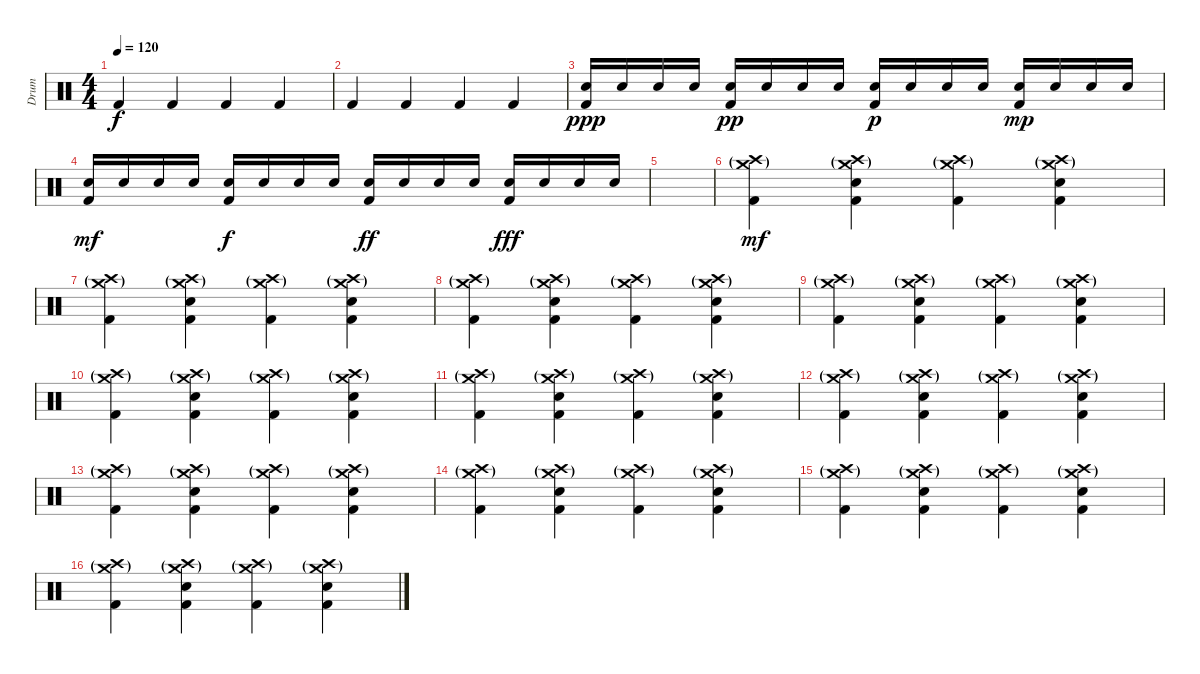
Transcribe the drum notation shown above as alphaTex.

\track ("Drum" "Drum") {instrument percussion}
\staff {score}
\articulation defaults
\ts (4 4)
\tempo 120
\clef neutral
\ks c "Kick (hit) 2".4{dy f} "Kick (hit) 2".4 "Kick (hit) 2".4 "Kick (hit) 2".4
|
"Kick (hit) 2".4 "Kick (hit) 2".4 "Kick (hit) 2".4 "Kick (hit) 2".4 |
("Snare (hit) 2" "Kick (hit) 2").16{dy ppp} "Snare (hit) 2".16 "Snare (hit) 2".16 "Snare (hit) 2".16 ("Snare (hit) 2" "Kick (hit) 2").16{dy pp} "Snare (hit) 2".16 "Snare (hit) 2".16 "Snare (hit) 2".16 ("Snare (hit) 2" "Kick (hit) 2").16{dy p} "Snare (hit) 2".16 "Snare (hit) 2".16 "Snare (hit) 2".16 ("Snare (hit) 2" "Kick (hit) 2").16{dy mp} "Snare (hit) 2".16 "Snare (hit) 2".16 "Snare (hit) 2".16 |
("Snare (hit) 2" "Kick (hit) 2").16{dy mf} "Snare (hit) 2".16 "Snare (hit) 2".16 "Snare (hit) 2".16 ("Snare (hit) 2" "Kick (hit) 2").16{dy f} "Snare (hit) 2".16 "Snare (hit) 2".16 "Snare (hit) 2".16 ("Snare (hit) 2" "Kick (hit) 2").16{dy ff} "Snare (hit) 2".16 "Snare (hit) 2".16 "Snare (hit) 2".16 ("Snare (hit) 2" "Kick (hit) 2").16{dy fff} "Snare (hit) 2".16 "Snare (hit) 2".16 "Snare (hit) 2".16 |
|
("Crash medium (hit)"{g} "Crash high (hit)"{g} "Kick (hit) 2").4{dy mf} ("Crash medium (hit)"{g} "Crash high (hit)"{g} "Snare (hit) 2" "Kick (hit) 2").4 ("Crash medium (hit)"{g} "Crash high (hit)"{g} "Kick (hit) 2").4 ("Crash medium (hit)"{g} "Crash high (hit)"{g} "Snare (hit) 2" "Kick (hit) 2").4 |
("Crash medium (hit)"{g} "Crash high (hit)"{g} "Kick (hit) 2").4 ("Crash medium (hit)"{g} "Crash high (hit)"{g} "Snare (hit) 2" "Kick (hit) 2").4 ("Crash medium (hit)"{g} "Crash high (hit)"{g} "Kick (hit) 2").4 ("Crash medium (hit)"{g} "Crash high (hit)"{g} "Snare (hit) 2" "Kick (hit) 2").4 |
("Crash medium (hit)"{g} "Crash high (hit)"{g} "Kick (hit) 2").4 ("Crash medium (hit)"{g} "Crash high (hit)"{g} "Snare (hit) 2" "Kick (hit) 2").4 ("Crash medium (hit)"{g} "Crash high (hit)"{g} "Kick (hit) 2").4 ("Crash medium (hit)"{g} "Crash high (hit)"{g} "Snare (hit) 2" "Kick (hit) 2").4 |
("Crash medium (hit)"{g} "Crash high (hit)"{g} "Kick (hit) 2").4 ("Crash medium (hit)"{g} "Crash high (hit)"{g} "Snare (hit) 2" "Kick (hit) 2").4 ("Crash medium (hit)"{g} "Crash high (hit)"{g} "Kick (hit) 2").4 ("Crash medium (hit)"{g} "Crash high (hit)"{g} "Snare (hit) 2" "Kick (hit) 2").4 |
("Crash medium (hit)"{g} "Crash high (hit)"{g} "Kick (hit) 2").4 ("Crash medium (hit)"{g} "Crash high (hit)"{g} "Snare (hit) 2" "Kick (hit) 2").4 ("Crash medium (hit)"{g} "Crash high (hit)"{g} "Kick (hit) 2").4 ("Crash medium (hit)"{g} "Crash high (hit)"{g} "Snare (hit) 2" "Kick (hit) 2").4 |
("Crash medium (hit)"{g} "Crash high (hit)"{g} "Kick (hit) 2").4 ("Crash medium (hit)"{g} "Crash high (hit)"{g} "Snare (hit) 2" "Kick (hit) 2").4 ("Crash medium (hit)"{g} "Crash high (hit)"{g} "Kick (hit) 2").4 ("Crash medium (hit)"{g} "Crash high (hit)"{g} "Snare (hit) 2" "Kick (hit) 2").4 |
("Crash medium (hit)"{g} "Crash high (hit)"{g} "Kick (hit) 2").4 ("Crash medium (hit)"{g} "Crash high (hit)"{g} "Snare (hit) 2" "Kick (hit) 2").4 ("Crash medium (hit)"{g} "Crash high (hit)"{g} "Kick (hit) 2").4 ("Crash medium (hit)"{g} "Crash high (hit)"{g} "Snare (hit) 2" "Kick (hit) 2").4 |
("Crash medium (hit)"{g} "Crash high (hit)"{g} "Kick (hit) 2").4 ("Crash medium (hit)"{g} "Crash high (hit)"{g} "Snare (hit) 2" "Kick (hit) 2").4 ("Crash medium (hit)"{g} "Crash high (hit)"{g} "Kick (hit) 2").4 ("Crash medium (hit)"{g} "Crash high (hit)"{g} "Snare (hit) 2" "Kick (hit) 2").4 |
("Crash medium (hit)"{g} "Crash high (hit)"{g} "Kick (hit) 2").4 ("Crash medium (hit)"{g} "Crash high (hit)"{g} "Snare (hit) 2" "Kick (hit) 2").4 ("Crash medium (hit)"{g} "Crash high (hit)"{g} "Kick (hit) 2").4 ("Crash medium (hit)"{g} "Crash high (hit)"{g} "Snare (hit) 2" "Kick (hit) 2").4 |
("Crash medium (hit)"{g} "Crash high (hit)"{g} "Kick (hit) 2").4 ("Crash medium (hit)"{g} "Crash high (hit)"{g} "Snare (hit) 2" "Kick (hit) 2").4 ("Crash medium (hit)"{g} "Crash high (hit)"{g} "Kick (hit) 2").4 ("Crash medium (hit)"{g} "Crash high (hit)"{g} "Snare (hit) 2" "Kick (hit) 2").4 |
("Crash medium (hit)"{g} "Crash high (hit)"{g} "Kick (hit) 2").4 ("Crash medium (hit)"{g} "Crash high (hit)"{g} "Snare (hit) 2" "Kick (hit) 2").4 ("Crash medium (hit)"{g} "Crash high (hit)"{g} "Kick (hit) 2").4 ("Crash medium (hit)"{g} "Crash high (hit)"{g} "Snare (hit) 2" "Kick (hit) 2").4
